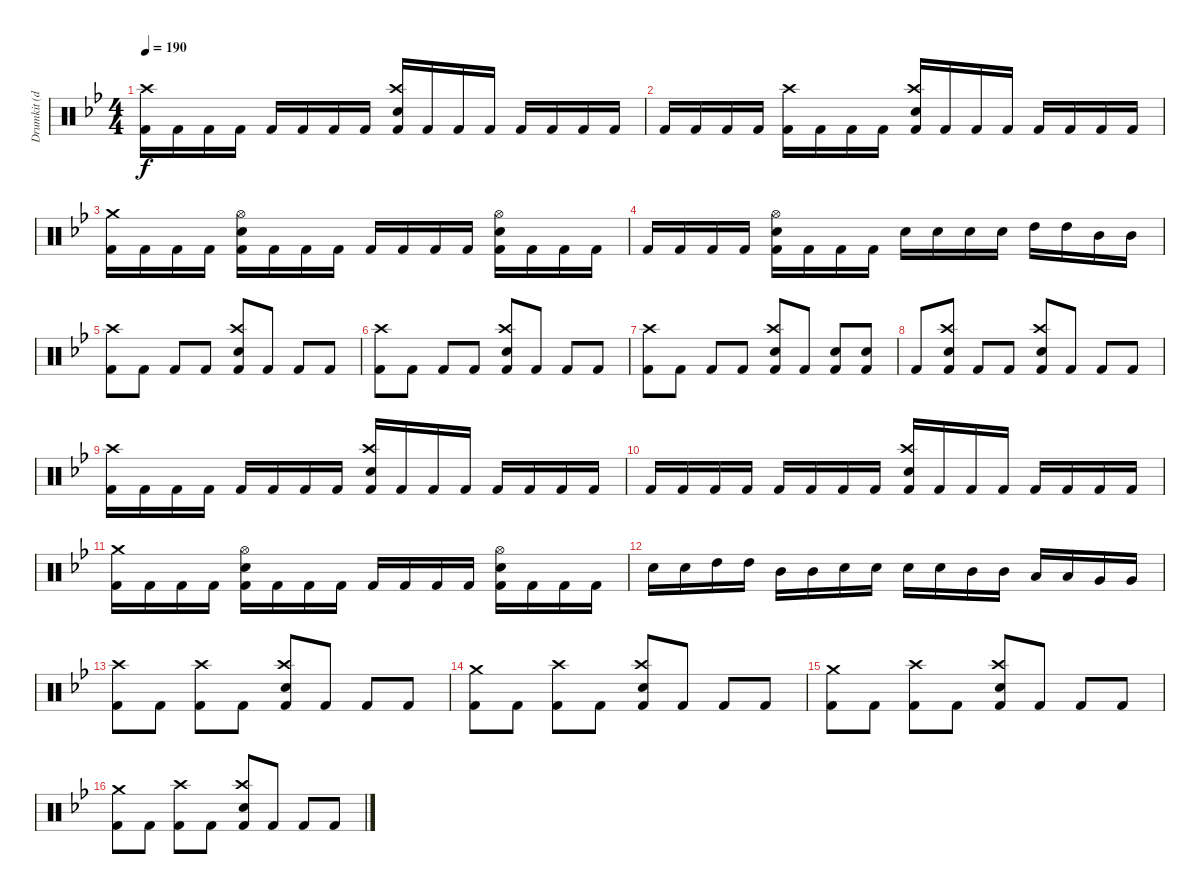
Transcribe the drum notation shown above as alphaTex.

\track ("Drumkit (don't unmute)" "Drumkit (d") {instrument percussion}
\staff {score}
\articulation defaults
\ts (4 4)
\tempo 190
\clef neutral
\ks bb
("Kick (hit) 2" "Crash high (hit)").16{dy f} "Kick (hit) 2".16 "Kick (hit) 2".16 "Kick (hit) 2".16 "Kick (hit) 2".16 "Kick (hit) 2".16 "Kick (hit) 2".16 "Kick (hit) 2".16 ("Kick (hit) 2" "Crash high (hit)" "Snare (hit) 2").16 "Kick (hit) 2".16 "Kick (hit) 2".16 "Kick (hit) 2".16 "Kick (hit) 2".16 "Kick (hit) 2".16 "Kick (hit) 2".16 "Kick (hit) 2".16 |
"Kick (hit) 2".16 "Kick (hit) 2".16 "Kick (hit) 2".16 "Kick (hit) 2".16 ("Kick (hit) 2" "Crash high (hit)").16 "Kick (hit) 2".16 "Kick (hit) 2".16 "Kick (hit) 2".16 ("Kick (hit) 2" "Crash high (hit)" "Snare (hit) 2").16 "Kick (hit) 2".16 "Kick (hit) 2".16 "Kick (hit) 2".16 "Kick (hit) 2".16 "Kick (hit) 2".16 "Kick (hit) 2".16 "Kick (hit) 2".16 |
("Kick (hit) 2" "Crash medium (hit)").16 "Kick (hit) 2".16 "Kick (hit) 2".16 "Kick (hit) 2".16 ("Kick (hit) 2" "Snare (hit) 2" "Hi-Hat (open)").16 "Kick (hit) 2".16 "Kick (hit) 2".16 "Kick (hit) 2".16 "Kick (hit) 2".16 "Kick (hit) 2".16 "Kick (hit) 2".16 "Kick (hit) 2".16 ("Kick (hit) 2" "Snare (hit) 2" "Hi-Hat (open)").16 "Kick (hit) 2".16 "Kick (hit) 2".16 "Kick (hit) 2".16 |
"Kick (hit) 2".16 "Kick (hit) 2".16 "Kick (hit) 2".16 "Kick (hit) 2".16 ("Kick (hit) 2" "Snare (hit) 2" "Hi-Hat (open)").16 "Kick (hit) 2".16 "Kick (hit) 2".16 "Kick (hit) 2".16 "Snare (hit) 2".16 "Snare (hit) 2".16 "Snare (hit) 2".16 "Snare (hit) 2".16 "High Tom (hit)".16 "High Tom (hit)".16 "Mid Tom (hit)".16 "Mid Tom (hit)".16 |
("Kick (hit) 2" "Crash high (hit)").8 "Kick (hit) 2".8 "Kick (hit) 2".8 "Kick (hit) 2".8 ("Kick (hit) 2" "Crash high (hit)" "Snare (hit) 2").8 "Kick (hit) 2".8 "Kick (hit) 2".8 "Kick (hit) 2".8 |
("Kick (hit) 2" "Crash high (hit)").8 "Kick (hit) 2".8 "Kick (hit) 2".8 "Kick (hit) 2".8 ("Kick (hit) 2" "Crash high (hit)" "Snare (hit) 2").8 "Kick (hit) 2".8 "Kick (hit) 2".8 "Kick (hit) 2".8 |
("Kick (hit) 2" "Crash high (hit)").8 "Kick (hit) 2".8 "Kick (hit) 2".8 "Kick (hit) 2".8 ("Kick (hit) 2" "Crash high (hit)" "Snare (hit) 2").8 "Kick (hit) 2".8 ("Kick (hit) 2" "Snare (hit) 2").8 ("Kick (hit) 2" "Snare (hit) 2").8 |
"Kick (hit) 2".8 ("Kick (hit) 2" "Snare (hit) 2" "Crash high (hit)").8 "Kick (hit) 2".8 "Kick (hit) 2".8 ("Kick (hit) 2" "Crash high (hit)" "Snare (hit) 2").8 "Kick (hit) 2".8 "Kick (hit) 2".8 "Kick (hit) 2".8 |
("Kick (hit) 2" "Crash high (hit)").16 "Kick (hit) 2".16 "Kick (hit) 2".16 "Kick (hit) 2".16 "Kick (hit) 2".16 "Kick (hit) 2".16 "Kick (hit) 2".16 "Kick (hit) 2".16 ("Kick (hit) 2" "Crash high (hit)" "Snare (hit) 2").16 "Kick (hit) 2".16 "Kick (hit) 2".16 "Kick (hit) 2".16 "Kick (hit) 2".16 "Kick (hit) 2".16 "Kick (hit) 2".16 "Kick (hit) 2".16 |
"Kick (hit) 2".16 "Kick (hit) 2".16 "Kick (hit) 2".16 "Kick (hit) 2".16 "Kick (hit) 2".16 "Kick (hit) 2".16 "Kick (hit) 2".16 "Kick (hit) 2".16 ("Kick (hit) 2" "Crash high (hit)" "Snare (hit) 2").16 "Kick (hit) 2".16 "Kick (hit) 2".16 "Kick (hit) 2".16 "Kick (hit) 2".16 "Kick (hit) 2".16 "Kick (hit) 2".16 "Kick (hit) 2".16 |
("Kick (hit) 2" "Crash medium (hit)").16 "Kick (hit) 2".16 "Kick (hit) 2".16 "Kick (hit) 2".16 ("Kick (hit) 2" "Snare (hit) 2" "Hi-Hat (open)").16 "Kick (hit) 2".16 "Kick (hit) 2".16 "Kick (hit) 2".16 "Kick (hit) 2".16 "Kick (hit) 2".16 "Kick (hit) 2".16 "Kick (hit) 2".16 ("Kick (hit) 2" "Snare (hit) 2" "Hi-Hat (open)").16 "Kick (hit) 2".16 "Kick (hit) 2".16 "Kick (hit) 2".16 |
"Snare (hit) 2".16 "Snare (hit) 2".16 "High Tom (hit)".16 "High Tom (hit)".16 "Mid Tom (hit)".16 "Mid Tom (hit)".16 "Snare (hit) 2".16 "Snare (hit) 2".16 "Snare (hit) 2".16 "Snare (hit) 2".16 "Mid Tom (hit)".16 "Mid Tom (hit)".16 "Low Tom (hit)".16 "Low Tom (hit)".16 "Very Low Tom (hit)".16 "Very Low Tom (hit)".16 |
("Kick (hit) 2" "Crash high (hit)").8 "Kick (hit) 2".8 ("Kick (hit) 2" "Crash high (hit)").8 "Kick (hit) 2".8 ("Kick (hit) 2" "Snare (hit) 2" "Crash high (hit)").8 "Kick (hit) 2".8 "Kick (hit) 2".8 "Kick (hit) 2".8 |
("Kick (hit) 2" "Crash medium (hit)").8 "Kick (hit) 2".8 ("Kick (hit) 2" "Crash high (hit)").8 "Kick (hit) 2".8 ("Kick (hit) 2" "Snare (hit) 2" "Crash high (hit)").8 "Kick (hit) 2".8 "Kick (hit) 2".8 "Kick (hit) 2".8 |
("Kick (hit) 2" "Crash medium (hit)").8 "Kick (hit) 2".8 ("Kick (hit) 2" "Crash high (hit)").8 "Kick (hit) 2".8 ("Kick (hit) 2" "Snare (hit) 2" "Crash high (hit)").8 "Kick (hit) 2".8 "Kick (hit) 2".8 "Kick (hit) 2".8 |
("Kick (hit) 2" "Crash medium (hit)").8 "Kick (hit) 2".8 ("Kick (hit) 2" "Crash high (hit)").8 "Kick (hit) 2".8 ("Kick (hit) 2" "Snare (hit) 2" "Crash high (hit)").8 "Kick (hit) 2".8 "Kick (hit) 2".8 "Kick (hit) 2".8
